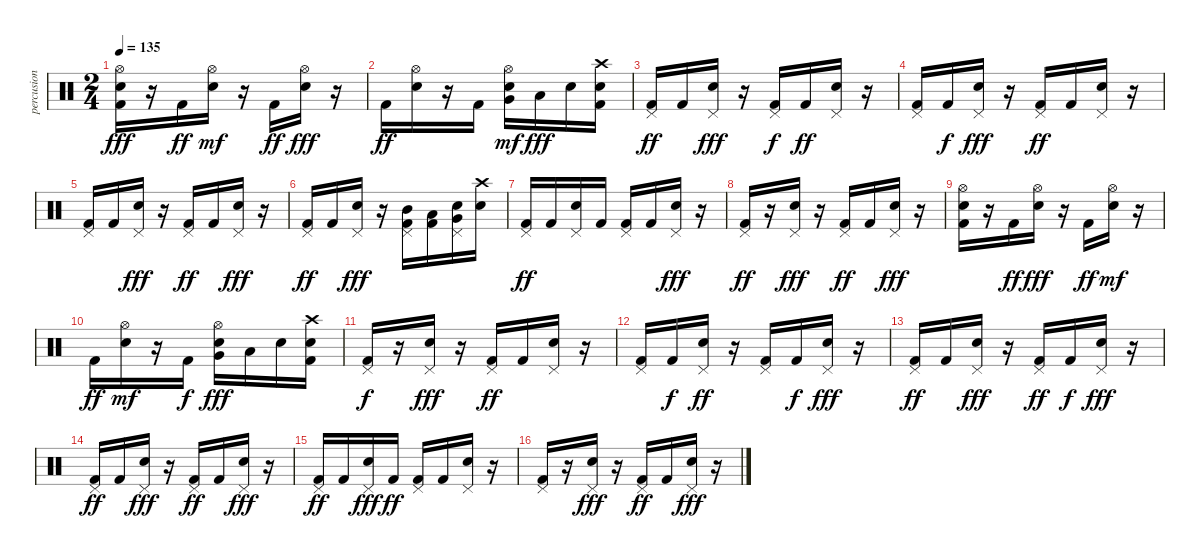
\track ("percusion" "percusion") {instrument percussion}
\staff {score}
\articulation defaults
\ts (2 4)
\tempo 135
\clef neutral
\ks c
("Kick (hit) 2" "Electric Snare (hit)" "Hi-Hat (open)").16{dy fff} r.16 "Kick (hit) 2".16{dy ff} ("Electric Snare (hit)" "Hi-Hat (open)").16{dy mf} r.16 "Kick (hit) 2".16{dy ff} ("Electric Snare (hit)" "Hi-Hat (open)").16{dy fff} r.16 |
"Kick (hit) 2".16{dy ff} ("Electric Snare (hit)" "Hi-Hat (open)").16 r.16 "Kick (hit) 2".16 ("Electric Snare (hit)" "Very Low Tom (hit)" "Hi-Hat (open)").16{dy mf} "Low Floor Tom (hit)".16{dy fff} "Electric Snare (hit)".16 ("Kick (hit) 2" "Electric Snare (hit)" "Crash high (hit)").16 |
("Kick (hit) 2" "Pedal Hi-Hat (hit)").16{dy ff} "Kick (hit) 2".16 ("Electric Snare (hit)" "Pedal Hi-Hat (hit)").16{dy fff} r.16 ("Kick (hit) 2" "Pedal Hi-Hat (hit)").16{dy f} "Kick (hit) 2".16{dy ff} ("Electric Snare (hit)" "Pedal Hi-Hat (hit)").16 r.16 |
("Kick (hit) 2" "Pedal Hi-Hat (hit)").16 "Kick (hit) 2".16{dy f} ("Electric Snare (hit)" "Pedal Hi-Hat (hit)").16{dy fff} r.16 ("Kick (hit) 2" "Pedal Hi-Hat (hit)").16{dy ff} "Kick (hit) 2".16 ("Electric Snare (hit)" "Pedal Hi-Hat (hit)").16 r.16 |
("Kick (hit) 2" "Pedal Hi-Hat (hit)").16 "Kick (hit) 2".16 ("Electric Snare (hit)" "Pedal Hi-Hat (hit)").16{dy fff} r.16 ("Kick (hit) 2" "Pedal Hi-Hat (hit)").16{dy ff} "Kick (hit) 2".16 ("Electric Snare (hit)" "Pedal Hi-Hat (hit)").16{dy fff} r.16 |
("Kick (hit) 2" "Pedal Hi-Hat (hit)").16{dy ff} "Kick (hit) 2".16 ("Electric Snare (hit)" "Pedal Hi-Hat (hit)").16{dy fff} r.16 ("Kick (hit) 2" "Mid Tom (hit)" "Pedal Hi-Hat (hit)").16 ("Kick (hit) 2" "Low Tom (hit)").16 ("Electric Snare (hit)" "Very Low Tom (hit)" "Pedal Hi-Hat (hit)").16 ("Electric Snare (hit)" "Crash high (hit)").16 |
("Kick (hit) 2" "Pedal Hi-Hat (hit)").16{dy ff} "Kick (hit) 2".16 ("Electric Snare (hit)" "Pedal Hi-Hat (hit)").16 "Kick (hit) 2".16 ("Kick (hit) 2" "Pedal Hi-Hat (hit)").16 "Kick (hit) 2".16 ("Electric Snare (hit)" "Pedal Hi-Hat (hit)").16{dy fff} r.16 |
("Kick (hit) 2" "Pedal Hi-Hat (hit)").16{dy ff} r.16 ("Electric Snare (hit)" "Pedal Hi-Hat (hit)").16{dy fff} r.16 ("Kick (hit) 2" "Pedal Hi-Hat (hit)").16{dy ff} "Kick (hit) 2".16 ("Electric Snare (hit)" "Pedal Hi-Hat (hit)").16{dy fff} r.16 |
("Kick (hit) 2" "Electric Snare (hit)" "Hi-Hat (open)").16 r.16 "Kick (hit) 2".16{dy ff} ("Electric Snare (hit)" "Hi-Hat (open)").16{dy fff} r.16 "Kick (hit) 2".16{dy ff} ("Electric Snare (hit)" "Hi-Hat (open)").16{dy mf} r.16 |
"Kick (hit) 2".16{dy ff} ("Electric Snare (hit)" "Hi-Hat (open)").16{dy mf} r.16 "Kick (hit) 2".16{dy f} ("Electric Snare (hit)" "Very Low Tom (hit)" "Hi-Hat (open)").16{dy fff} "Low Floor Tom (hit)".16 "Electric Snare (hit)".16 ("Kick (hit) 2" "Electric Snare (hit)" "Crash high (hit)").16 |
("Kick (hit) 2" "Pedal Hi-Hat (hit)").16{dy f} r.16 ("Electric Snare (hit)" "Pedal Hi-Hat (hit)").16{dy fff} r.16 ("Kick (hit) 2" "Pedal Hi-Hat (hit)").16{dy ff} "Kick (hit) 2".16 ("Electric Snare (hit)" "Pedal Hi-Hat (hit)").16 r.16 |
("Kick (hit) 2" "Pedal Hi-Hat (hit)").16 "Kick (hit) 2".16{dy f} ("Electric Snare (hit)" "Pedal Hi-Hat (hit)").16{dy ff} r.16 ("Kick (hit) 2" "Pedal Hi-Hat (hit)").16 "Kick (hit) 2".16{dy f} ("Electric Snare (hit)" "Pedal Hi-Hat (hit)").16{dy fff} r.16 |
("Kick (hit) 2" "Pedal Hi-Hat (hit)").16{dy ff} "Kick (hit) 2".16 ("Electric Snare (hit)" "Pedal Hi-Hat (hit)").16{dy fff} r.16 ("Kick (hit) 2" "Pedal Hi-Hat (hit)").16{dy ff} "Kick (hit) 2".16{dy f} ("Electric Snare (hit)" "Pedal Hi-Hat (hit)").16{dy fff} r.16 |
("Kick (hit) 2" "Pedal Hi-Hat (hit)").16{dy ff} "Kick (hit) 2".16 ("Electric Snare (hit)" "Pedal Hi-Hat (hit)").16{dy fff} r.16 ("Kick (hit) 2" "Pedal Hi-Hat (hit)").16{dy ff} "Kick (hit) 2".16 ("Electric Snare (hit)" "Pedal Hi-Hat (hit)").16{dy fff} r.16 |
("Kick (hit) 2" "Pedal Hi-Hat (hit)").16{dy ff} "Kick (hit) 2".16 ("Electric Snare (hit)" "Pedal Hi-Hat (hit)").16{dy fff} "Kick (hit) 2".16{dy ff} ("Kick (hit) 2" "Pedal Hi-Hat (hit)").16 "Kick (hit) 2".16 ("Electric Snare (hit)" "Pedal Hi-Hat (hit)").16 r.16 |
("Kick (hit) 2" "Pedal Hi-Hat (hit)").16 r.16 ("Electric Snare (hit)" "Pedal Hi-Hat (hit)").16{dy fff} r.16 ("Kick (hit) 2" "Pedal Hi-Hat (hit)").16{dy ff} "Kick (hit) 2".16 ("Electric Snare (hit)" "Pedal Hi-Hat (hit)").16{dy fff} r.16
